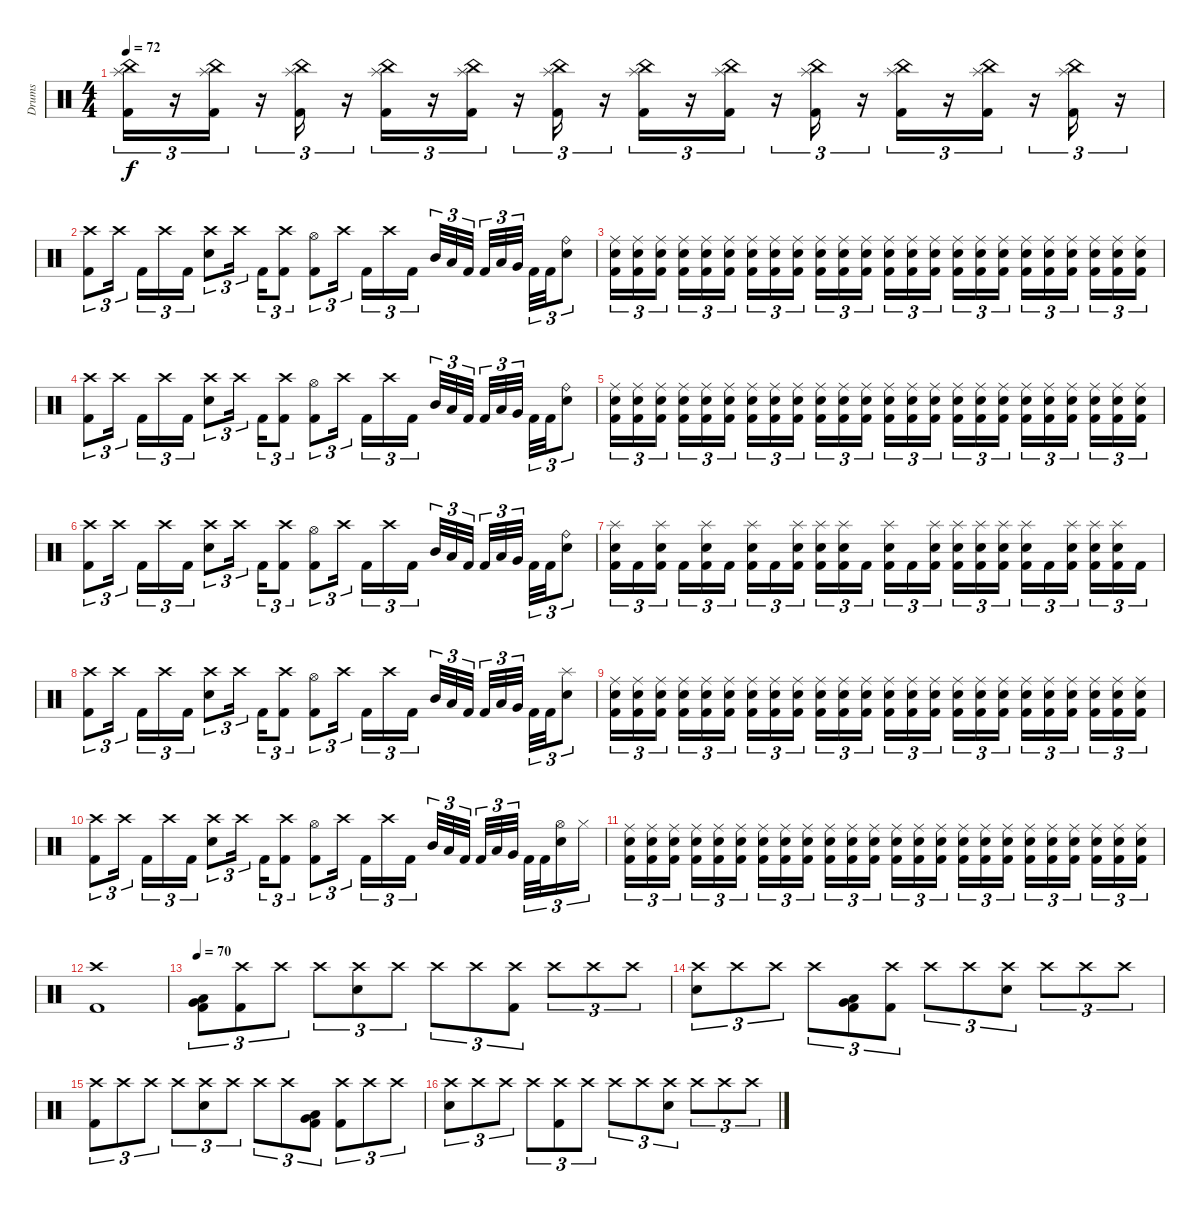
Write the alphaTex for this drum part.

\track ("Drums" "Drums") {instrument percussion}
\staff {score}
\articulation defaults
\ts (4 4)
\tempo 72
\clef neutral
\ks c
("China (hit)" "Splash (hit)" "Kick (hit) 2").16{tu (3 2) dy f} r.16{tu (3 2)} ("China (hit)" "Splash (hit)" "Kick (hit) 2").16{tu (3 2)} r.16{tu (3 2)} ("China (hit)" "Splash (hit)" "Kick (hit) 2").16{tu (3 2)} r.16{tu (3 2)} ("China (hit)" "Splash (hit)" "Kick (hit) 2").16{tu (3 2)} r.16{tu (3 2)} ("China (hit)" "Splash (hit)" "Kick (hit) 2").16{tu (3 2)} r.16{tu (3 2)} ("Splash (hit)" "China (hit)" "Kick (hit) 2").16{tu (3 2)} r.16{tu (3 2)} ("Splash (hit)" "China (hit)" "Kick (hit) 2").16{tu (3 2)} r.16{tu (3 2)} ("Splash (hit)" "China (hit)" "Kick (hit) 2").16{tu (3 2)} r.16{tu (3 2)} ("Splash (hit)" "China (hit)" "Kick (hit) 2").16{tu (3 2)} r.16{tu (3 2)} ("China (hit)" "Splash (hit)" "Kick (hit) 2").16{tu (3 2)} r.16{tu (3 2)} ("China (hit)" "Splash (hit)" "Kick (hit) 2").16{tu (3 2)} r.16{tu (3 2)} ("Splash (hit)" "China (hit)" "Kick (hit) 2").16{tu (3 2)} r.16{tu (3 2)} |
("Kick (hit) 2" "Crash high (hit)").8{tu (3 2)} "Crash high (hit)".16{tu (3 2) beam splitsecondary} "Kick (hit) 2".16{tu (3 2)} "Crash high (hit)".16{tu (3 2)} "Kick (hit) 2".16{tu (3 2)} ("Crash high (hit)" "Electric Snare (hit)").8{tu (3 2)} "Crash high (hit)".16{tu (3 2) beam splitsecondary} "Kick (hit) 2".16{tu (3 2)} ("Crash high (hit)" "Kick (hit) 2").8{tu (3 2)} ("Hi-Hat (open)" "Kick (hit) 2").8{tu (3 2)} "Crash high (hit)".16{tu (3 2) beam splitsecondary} "Kick (hit) 2".16{tu (3 2)} "Crash high (hit)".16{tu (3 2)} "Kick (hit) 2".16{tu (3 2)} "Mid Tom (hit)".32{tu (3 2)} "Low Tom (hit)".32{tu (3 2)} "Kick (hit) 2".32{tu (3 2) beam splitsecondary} "Kick (hit) 2".32{tu (3 2)} "Low Tom (hit)".32{tu (3 2)} "Very Low Tom (hit)".32{tu (3 2) beam splitsecondary} "Kick (hit) 2".32{tu (3 2)} "Kick (hit) 2".32{tu (3 2)} ("Ride (bell)" "Electric Snare (hit)").8{tu (3 2)} |
("Kick (hit) 2" "Ride (middle)" "Electric Snare (hit)").16{tu (3 2)} ("Kick (hit) 2" "Ride (middle)" "Electric Snare (hit)").16{tu (3 2)} ("Kick (hit) 2" "Ride (middle)" "Electric Snare (hit)").16{tu (3 2) beam splitsecondary} ("Kick (hit) 2" "Ride (middle)" "Electric Snare (hit)").16{tu (3 2)} ("Kick (hit) 2" "Ride (middle)" "Electric Snare (hit)").16{tu (3 2)} ("Kick (hit) 2" "Ride (middle)" "Electric Snare (hit)").16{tu (3 2)} ("Kick (hit) 2" "Ride (middle)" "Electric Snare (hit)").16{tu (3 2)} ("Kick (hit) 2" "Ride (middle)" "Electric Snare (hit)").16{tu (3 2)} ("Kick (hit) 2" "Ride (middle)" "Electric Snare (hit)").16{tu (3 2) beam splitsecondary} ("Kick (hit) 2" "Ride (middle)" "Electric Snare (hit)").16{tu (3 2)} ("Kick (hit) 2" "Ride (middle)" "Electric Snare (hit)").16{tu (3 2)} ("Kick (hit) 2" "Ride (middle)" "Electric Snare (hit)").16{tu (3 2)} ("Kick (hit) 2" "Ride (middle)" "Electric Snare (hit)").16{tu (3 2)} ("Kick (hit) 2" "Ride (middle)" "Electric Snare (hit)").16{tu (3 2)} ("Kick (hit) 2" "Ride (middle)" "Electric Snare (hit)").16{tu (3 2) beam splitsecondary} ("Kick (hit) 2" "Ride (middle)" "Electric Snare (hit)").16{tu (3 2)} ("Kick (hit) 2" "Ride (middle)" "Electric Snare (hit)").16{tu (3 2)} ("Kick (hit) 2" "Ride (middle)" "Electric Snare (hit)").16{tu (3 2)} ("Electric Snare (hit)" "Ride (middle)" "Kick (hit) 2").16{tu (3 2)} ("Electric Snare (hit)" "Ride (middle)" "Kick (hit) 2").16{tu (3 2)} ("Electric Snare (hit)" "Ride (middle)" "Kick (hit) 2").16{tu (3 2) beam splitsecondary} ("Electric Snare (hit)" "Ride (middle)" "Kick (hit) 2").16{tu (3 2)} ("Electric Snare (hit)" "Ride (middle)" "Kick (hit) 2").16{tu (3 2)} ("Electric Snare (hit)" "Ride (middle)" "Kick (hit) 2").16{tu (3 2)} |
("Kick (hit) 2" "Crash high (hit)").8{tu (3 2)} "Crash high (hit)".16{tu (3 2) beam splitsecondary} "Kick (hit) 2".16{tu (3 2)} "Crash high (hit)".16{tu (3 2)} "Kick (hit) 2".16{tu (3 2)} ("Crash high (hit)" "Electric Snare (hit)").8{tu (3 2)} "Crash high (hit)".16{tu (3 2) beam splitsecondary} "Kick (hit) 2".16{tu (3 2)} ("Crash high (hit)" "Kick (hit) 2").8{tu (3 2)} ("Hi-Hat (open)" "Kick (hit) 2").8{tu (3 2)} "Crash high (hit)".16{tu (3 2) beam splitsecondary} "Kick (hit) 2".16{tu (3 2)} "Crash high (hit)".16{tu (3 2)} "Kick (hit) 2".16{tu (3 2)} "Mid Tom (hit)".32{tu (3 2)} "Low Tom (hit)".32{tu (3 2)} "Kick (hit) 2".32{tu (3 2) beam splitsecondary} "Kick (hit) 2".32{tu (3 2)} "Low Tom (hit)".32{tu (3 2)} "Very Low Tom (hit)".32{tu (3 2) beam splitsecondary} "Kick (hit) 2".32{tu (3 2)} "Kick (hit) 2".32{tu (3 2)} ("Ride (bell)" "Electric Snare (hit)").8{tu (3 2)} |
("Kick (hit) 2" "Ride (middle)" "Electric Snare (hit)").16{tu (3 2)} ("Kick (hit) 2" "Ride (middle)" "Electric Snare (hit)").16{tu (3 2)} ("Kick (hit) 2" "Ride (middle)" "Electric Snare (hit)").16{tu (3 2) beam splitsecondary} ("Kick (hit) 2" "Ride (middle)" "Electric Snare (hit)").16{tu (3 2)} ("Kick (hit) 2" "Ride (middle)" "Electric Snare (hit)").16{tu (3 2)} ("Kick (hit) 2" "Ride (middle)" "Electric Snare (hit)").16{tu (3 2)} ("Kick (hit) 2" "Ride (middle)" "Electric Snare (hit)").16{tu (3 2)} ("Kick (hit) 2" "Ride (middle)" "Electric Snare (hit)").16{tu (3 2)} ("Kick (hit) 2" "Ride (middle)" "Electric Snare (hit)").16{tu (3 2) beam splitsecondary} ("Kick (hit) 2" "Ride (middle)" "Electric Snare (hit)").16{tu (3 2)} ("Kick (hit) 2" "Ride (middle)" "Electric Snare (hit)").16{tu (3 2)} ("Kick (hit) 2" "Ride (middle)" "Electric Snare (hit)").16{tu (3 2)} ("Kick (hit) 2" "Ride (middle)" "Electric Snare (hit)").16{tu (3 2)} ("Kick (hit) 2" "Ride (middle)" "Electric Snare (hit)").16{tu (3 2)} ("Kick (hit) 2" "Ride (middle)" "Electric Snare (hit)").16{tu (3 2) beam splitsecondary} ("Kick (hit) 2" "Ride (middle)" "Electric Snare (hit)").16{tu (3 2)} ("Kick (hit) 2" "Ride (middle)" "Electric Snare (hit)").16{tu (3 2)} ("Kick (hit) 2" "Ride (middle)" "Electric Snare (hit)").16{tu (3 2)} ("Electric Snare (hit)" "Ride (middle)" "Kick (hit) 2").16{tu (3 2)} ("Electric Snare (hit)" "Ride (middle)" "Kick (hit) 2").16{tu (3 2)} ("Electric Snare (hit)" "Ride (middle)" "Kick (hit) 2").16{tu (3 2) beam splitsecondary} ("Electric Snare (hit)" "Ride (middle)" "Kick (hit) 2").16{tu (3 2)} ("Electric Snare (hit)" "Ride (middle)" "Kick (hit) 2").16{tu (3 2)} ("Electric Snare (hit)" "Ride (middle)" "Kick (hit) 2").16{tu (3 2)} |
("Kick (hit) 2" "Crash high (hit)").8{tu (3 2)} "Crash high (hit)".16{tu (3 2) beam splitsecondary} "Kick (hit) 2".16{tu (3 2)} "Crash high (hit)".16{tu (3 2)} "Kick (hit) 2".16{tu (3 2)} ("Crash high (hit)" "Electric Snare (hit)").8{tu (3 2)} "Crash high (hit)".16{tu (3 2) beam splitsecondary} "Kick (hit) 2".16{tu (3 2)} ("Crash high (hit)" "Kick (hit) 2").8{tu (3 2)} ("Hi-Hat (open)" "Kick (hit) 2").8{tu (3 2)} "Crash high (hit)".16{tu (3 2) beam splitsecondary} "Kick (hit) 2".16{tu (3 2)} "Crash high (hit)".16{tu (3 2)} "Kick (hit) 2".16{tu (3 2)} "Mid Tom (hit)".32{tu (3 2)} "Low Tom (hit)".32{tu (3 2)} "Kick (hit) 2".32{tu (3 2) beam splitsecondary} "Kick (hit) 2".32{tu (3 2)} "Low Tom (hit)".32{tu (3 2)} "Very Low Tom (hit)".32{tu (3 2) beam splitsecondary} "Kick (hit) 2".32{tu (3 2)} "Kick (hit) 2".32{tu (3 2)} ("Ride (bell)" "Electric Snare (hit)").8{tu (3 2)} |
("Splash (hit)" "Electric Snare (hit)" "Kick (hit) 2").16{tu (3 2)} "Kick (hit) 2".16{tu (3 2)} ("Splash (hit)" "Electric Snare (hit)" "Kick (hit) 2").16{tu (3 2) beam splitsecondary} "Kick (hit) 2".16{tu (3 2)} ("Splash (hit)" "Electric Snare (hit)" "Kick (hit) 2").16{tu (3 2)} "Kick (hit) 2".16{tu (3 2)} ("Splash (hit)" "Electric Snare (hit)" "Kick (hit) 2").16{tu (3 2)} "Kick (hit) 2".16{tu (3 2)} ("Splash (hit)" "Electric Snare (hit)" "Kick (hit) 2").16{tu (3 2) beam splitsecondary} ("Splash (hit)" "Electric Snare (hit)" "Kick (hit) 2").16{tu (3 2)} ("Splash (hit)" "Electric Snare (hit)" "Kick (hit) 2").16{tu (3 2)} "Kick (hit) 2".16{tu (3 2)} ("Splash (hit)" "Electric Snare (hit)" "Kick (hit) 2").16{tu (3 2)} "Kick (hit) 2".16{tu (3 2)} ("Splash (hit)" "Electric Snare (hit)" "Kick (hit) 2").16{tu (3 2) beam splitsecondary} ("Splash (hit)" "Electric Snare (hit)" "Kick (hit) 2").16{tu (3 2)} ("Splash (hit)" "Electric Snare (hit)" "Kick (hit) 2").16{tu (3 2)} ("Splash (hit)" "Electric Snare (hit)" "Kick (hit) 2").16{tu (3 2)} ("Splash (hit)" "Electric Snare (hit)" "Kick (hit) 2").16{tu (3 2)} "Kick (hit) 2".16{tu (3 2)} ("Splash (hit)" "Electric Snare (hit)" "Kick (hit) 2").16{tu (3 2) beam splitsecondary} ("Splash (hit)" "Electric Snare (hit)" "Kick (hit) 2").16{tu (3 2)} ("Splash (hit)" "Electric Snare (hit)" "Kick (hit) 2").16{tu (3 2)} "Kick (hit) 2".16{tu (3 2)} |
("Kick (hit) 2" "Crash high (hit)").8{tu (3 2)} "Crash high (hit)".16{tu (3 2) beam splitsecondary} "Kick (hit) 2".16{tu (3 2)} "Crash high (hit)".16{tu (3 2)} "Kick (hit) 2".16{tu (3 2)} ("Crash high (hit)" "Electric Snare (hit)").8{tu (3 2)} "Crash high (hit)".16{tu (3 2) beam splitsecondary} "Kick (hit) 2".16{tu (3 2)} ("Crash high (hit)" "Kick (hit) 2").8{tu (3 2)} ("Hi-Hat (open)" "Kick (hit) 2").8{tu (3 2)} "Crash high (hit)".16{tu (3 2) beam splitsecondary} "Kick (hit) 2".16{tu (3 2)} "Crash high (hit)".16{tu (3 2)} "Kick (hit) 2".16{tu (3 2)} "Mid Tom (hit)".32{tu (3 2)} "Low Tom (hit)".32{tu (3 2)} "Kick (hit) 2".32{tu (3 2) beam splitsecondary} "Kick (hit) 2".32{tu (3 2)} "Low Tom (hit)".32{tu (3 2)} "Very Low Tom (hit)".32{tu (3 2) beam splitsecondary} "Kick (hit) 2".32{tu (3 2)} "Kick (hit) 2".32{tu (3 2)} ("Splash (hit)" "Electric Snare (hit)").8{tu (3 2)} |
("Kick (hit) 2" "Ride (middle)" "Electric Snare (hit)").16{tu (3 2)} ("Kick (hit) 2" "Ride (middle)" "Electric Snare (hit)").16{tu (3 2)} ("Kick (hit) 2" "Ride (middle)" "Electric Snare (hit)").16{tu (3 2) beam splitsecondary} ("Kick (hit) 2" "Ride (middle)" "Electric Snare (hit)").16{tu (3 2)} ("Kick (hit) 2" "Ride (middle)" "Electric Snare (hit)").16{tu (3 2)} ("Kick (hit) 2" "Ride (middle)" "Electric Snare (hit)").16{tu (3 2)} ("Kick (hit) 2" "Ride (middle)" "Electric Snare (hit)").16{tu (3 2)} ("Kick (hit) 2" "Ride (middle)" "Electric Snare (hit)").16{tu (3 2)} ("Kick (hit) 2" "Ride (middle)" "Electric Snare (hit)").16{tu (3 2) beam splitsecondary} ("Kick (hit) 2" "Ride (middle)" "Electric Snare (hit)").16{tu (3 2)} ("Kick (hit) 2" "Ride (middle)" "Electric Snare (hit)").16{tu (3 2)} ("Kick (hit) 2" "Ride (middle)" "Electric Snare (hit)").16{tu (3 2)} ("Kick (hit) 2" "Ride (middle)" "Electric Snare (hit)").16{tu (3 2)} ("Kick (hit) 2" "Ride (middle)" "Electric Snare (hit)").16{tu (3 2)} ("Kick (hit) 2" "Ride (middle)" "Electric Snare (hit)").16{tu (3 2) beam splitsecondary} ("Kick (hit) 2" "Ride (middle)" "Electric Snare (hit)").16{tu (3 2)} ("Kick (hit) 2" "Ride (middle)" "Electric Snare (hit)").16{tu (3 2)} ("Kick (hit) 2" "Ride (middle)" "Electric Snare (hit)").16{tu (3 2)} ("Electric Snare (hit)" "Ride (middle)" "Kick (hit) 2").16{tu (3 2)} ("Electric Snare (hit)" "Ride (middle)" "Kick (hit) 2").16{tu (3 2)} ("Electric Snare (hit)" "Ride (middle)" "Kick (hit) 2").16{tu (3 2) beam splitsecondary} ("Electric Snare (hit)" "Ride (middle)" "Kick (hit) 2").16{tu (3 2)} ("Electric Snare (hit)" "Ride (middle)" "Kick (hit) 2").16{tu (3 2)} ("Electric Snare (hit)" "Ride (middle)" "Kick (hit) 2").16{tu (3 2)} |
("Kick (hit) 2" "Crash high (hit)").8{tu (3 2)} "Crash high (hit)".16{tu (3 2) beam splitsecondary} "Kick (hit) 2".16{tu (3 2)} "Crash high (hit)".16{tu (3 2)} "Kick (hit) 2".16{tu (3 2)} ("Crash high (hit)" "Electric Snare (hit)").8{tu (3 2)} "Crash high (hit)".16{tu (3 2) beam splitsecondary} "Kick (hit) 2".16{tu (3 2)} ("Crash high (hit)" "Kick (hit) 2").8{tu (3 2)} ("Hi-Hat (open)" "Kick (hit) 2").8{tu (3 2)} "Crash high (hit)".16{tu (3 2) beam splitsecondary} "Kick (hit) 2".16{tu (3 2)} "Crash high (hit)".16{tu (3 2)} "Kick (hit) 2".16{tu (3 2)} "Mid Tom (hit)".32{tu (3 2)} "Low Tom (hit)".32{tu (3 2)} "Kick (hit) 2".32{tu (3 2) beam splitsecondary} "Kick (hit) 2".32{tu (3 2)} "Low Tom (hit)".32{tu (3 2)} "Very Low Tom (hit)".32{tu (3 2) beam splitsecondary} "Kick (hit) 2".32{tu (3 2)} "Kick (hit) 2".32{tu (3 2)} ("Hi-Hat (open)" "Electric Snare (hit)").16{tu (3 2)} "Hi-Hat (closed)".16{tu (3 2)} |
("Kick (hit) 2" "Ride (middle)" "Electric Snare (hit)").16{tu (3 2)} ("Kick (hit) 2" "Ride (middle)" "Electric Snare (hit)").16{tu (3 2)} ("Kick (hit) 2" "Ride (middle)" "Electric Snare (hit)").16{tu (3 2) beam splitsecondary} ("Kick (hit) 2" "Ride (middle)" "Electric Snare (hit)").16{tu (3 2)} ("Kick (hit) 2" "Ride (middle)" "Electric Snare (hit)").16{tu (3 2)} ("Kick (hit) 2" "Ride (middle)" "Electric Snare (hit)").16{tu (3 2)} ("Kick (hit) 2" "Ride (middle)" "Electric Snare (hit)").16{tu (3 2)} ("Kick (hit) 2" "Ride (middle)" "Electric Snare (hit)").16{tu (3 2)} ("Kick (hit) 2" "Ride (middle)" "Electric Snare (hit)").16{tu (3 2) beam splitsecondary} ("Kick (hit) 2" "Ride (middle)" "Electric Snare (hit)").16{tu (3 2)} ("Kick (hit) 2" "Ride (middle)" "Electric Snare (hit)").16{tu (3 2)} ("Kick (hit) 2" "Ride (middle)" "Electric Snare (hit)").16{tu (3 2)} ("Kick (hit) 2" "Ride (middle)" "Electric Snare (hit)").16{tu (3 2)} ("Kick (hit) 2" "Ride (middle)" "Electric Snare (hit)").16{tu (3 2)} ("Kick (hit) 2" "Ride (middle)" "Electric Snare (hit)").16{tu (3 2) beam splitsecondary} ("Kick (hit) 2" "Ride (middle)" "Electric Snare (hit)").16{tu (3 2)} ("Kick (hit) 2" "Ride (middle)" "Electric Snare (hit)").16{tu (3 2)} ("Kick (hit) 2" "Ride (middle)" "Electric Snare (hit)").16{tu (3 2)} ("Electric Snare (hit)" "Ride (middle)" "Kick (hit) 2").16{tu (3 2)} ("Electric Snare (hit)" "Ride (middle)" "Kick (hit) 2").16{tu (3 2)} ("Electric Snare (hit)" "Ride (middle)" "Kick (hit) 2").16{tu (3 2) beam splitsecondary} ("Electric Snare (hit)" "Ride (middle)" "Kick (hit) 2").16{tu (3 2)} ("Electric Snare (hit)" "Ride (middle)" "Kick (hit) 2").16{tu (3 2)} ("Electric Snare (hit)" "Ride (middle)" "Kick (hit) 2").16{tu (3 2)} |
("Crash high (hit)" "Kick (hit) 2").1 |
\tempo 70
("Kick (hit) 2" "Very Low Tom (hit)" "Low Tom (hit)").8{tu (3 2)} ("Crash high (hit)" "Kick (hit) 2").8{tu (3 2)} "Crash high (hit)".8{tu (3 2)} "Crash high (hit)".8{tu (3 2)} ("Crash high (hit)" "Electric Snare (hit)").8{tu (3 2)} "Crash high (hit)".8{tu (3 2)} "Crash high (hit)".8{tu (3 2)} "Crash high (hit)".8{tu (3 2)} ("Crash high (hit)" "Kick (hit) 2").8{tu (3 2)} "Crash high (hit)".8{tu (3 2)} "Crash high (hit)".8{tu (3 2)} "Crash high (hit)".8{tu (3 2)} |
("Crash high (hit)" "Electric Snare (hit)").8{tu (3 2)} "Crash high (hit)".8{tu (3 2)} "Crash high (hit)".8{tu (3 2)} "Crash high (hit)".8{tu (3 2)} ("Kick (hit) 2" "Very Low Tom (hit)" "Low Tom (hit)").8{tu (3 2)} ("Crash high (hit)" "Kick (hit) 2").8{tu (3 2)} "Crash high (hit)".8{tu (3 2)} "Crash high (hit)".8{tu (3 2)} ("Crash high (hit)" "Electric Snare (hit)").8{tu (3 2)} "Crash high (hit)".8{tu (3 2)} "Crash high (hit)".8{tu (3 2)} "Crash high (hit)".8{tu (3 2)} |
("Crash high (hit)" "Kick (hit) 2").8{tu (3 2)} "Crash high (hit)".8{tu (3 2)} "Crash high (hit)".8{tu (3 2)} "Crash high (hit)".8{tu (3 2)} ("Crash high (hit)" "Electric Snare (hit)").8{tu (3 2)} "Crash high (hit)".8{tu (3 2)} "Crash high (hit)".8{tu (3 2)} "Crash high (hit)".8{tu (3 2)} ("Kick (hit) 2" "Low Tom (hit)" "Very Low Tom (hit)").8{tu (3 2)} ("Crash high (hit)" "Kick (hit) 2").8{tu (3 2)} "Crash high (hit)".8{tu (3 2)} "Crash high (hit)".8{tu (3 2)} |
("Crash high (hit)" "Electric Snare (hit)").8{tu (3 2)} "Crash high (hit)".8{tu (3 2)} "Crash high (hit)".8{tu (3 2)} "Crash high (hit)".8{tu (3 2)} ("Crash high (hit)" "Kick (hit) 2").8{tu (3 2)} "Crash high (hit)".8{tu (3 2)} "Crash high (hit)".8{tu (3 2)} "Crash high (hit)".8{tu (3 2)} ("Crash high (hit)" "Electric Snare (hit)").8{tu (3 2)} "Crash high (hit)".8{tu (3 2)} "Crash high (hit)".8{tu (3 2)} "Crash high (hit)".8{tu (3 2)}
